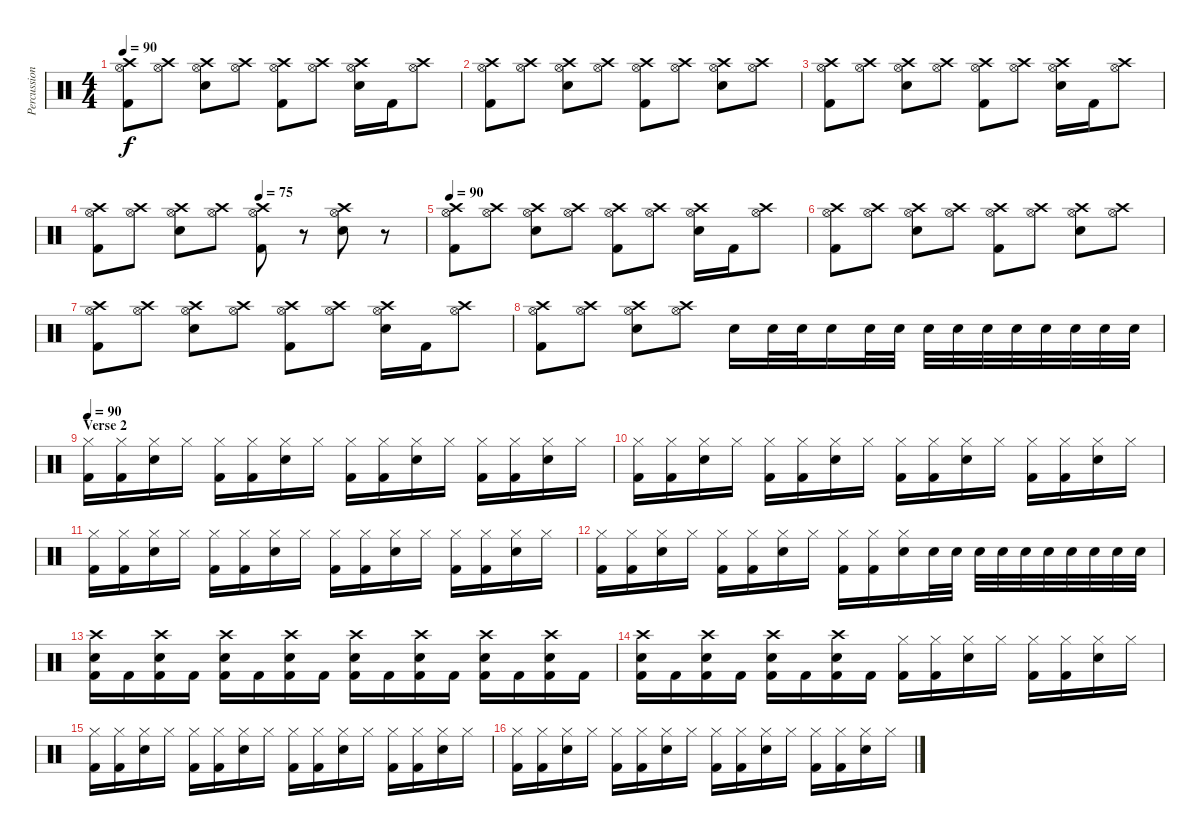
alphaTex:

\track ("Percussion" "Percussion") {instrument percussion}
\staff {score}
\articulation defaults
\ts (4 4)
\tempo 90
\clef neutral
\ks c
("Hi-Hat (open)" "Crash high (hit)" "Kick (hit) 2").8{dy f} ("Hi-Hat (open)" "Crash high (hit)").8 ("Hi-Hat (open)" "Crash high (hit)" "Snare (hit) 2").8 ("Hi-Hat (open)" "Crash high (hit)").8 ("Hi-Hat (open)" "Crash high (hit)" "Kick (hit) 2").8 ("Hi-Hat (open)" "Crash high (hit)").8 ("Hi-Hat (open)" "Crash high (hit)" "Snare (hit) 2").16 "Kick (hit) 2".16 ("Hi-Hat (open)" "Crash high (hit)").8 |
("Hi-Hat (open)" "Crash high (hit)" "Kick (hit) 2").8 ("Hi-Hat (open)" "Crash high (hit)").8 ("Hi-Hat (open)" "Crash high (hit)" "Snare (hit) 2").8 ("Hi-Hat (open)" "Crash high (hit)").8 ("Hi-Hat (open)" "Crash high (hit)" "Kick (hit) 2").8 ("Hi-Hat (open)" "Crash high (hit)").8 ("Hi-Hat (open)" "Crash high (hit)" "Snare (hit) 2").8 ("Hi-Hat (open)" "Crash high (hit)").8 |
("Hi-Hat (open)" "Crash high (hit)" "Kick (hit) 2").8 ("Hi-Hat (open)" "Crash high (hit)").8 ("Hi-Hat (open)" "Crash high (hit)" "Snare (hit) 2").8 ("Hi-Hat (open)" "Crash high (hit)").8 ("Hi-Hat (open)" "Crash high (hit)" "Kick (hit) 2").8 ("Hi-Hat (open)" "Crash high (hit)").8 ("Hi-Hat (open)" "Crash high (hit)" "Snare (hit) 2").16 "Kick (hit) 2".16 ("Hi-Hat (open)" "Crash high (hit)").8 |
\tempo (75 0.5)
("Hi-Hat (open)" "Crash high (hit)" "Kick (hit) 2").8 ("Hi-Hat (open)" "Crash high (hit)").8 ("Hi-Hat (open)" "Crash high (hit)" "Snare (hit) 2").8 ("Hi-Hat (open)" "Crash high (hit)").8 ("Hi-Hat (open)" "Crash high (hit)" "Kick (hit) 2").8 r.8 ("Hi-Hat (open)" "Crash high (hit)" "Snare (hit) 2").8 r.8 |
\tempo 90
("Hi-Hat (open)" "Crash high (hit)" "Kick (hit) 2").8 ("Hi-Hat (open)" "Crash high (hit)").8 ("Hi-Hat (open)" "Crash high (hit)" "Snare (hit) 2").8 ("Hi-Hat (open)" "Crash high (hit)").8 ("Hi-Hat (open)" "Crash high (hit)" "Kick (hit) 2").8 ("Hi-Hat (open)" "Crash high (hit)").8 ("Hi-Hat (open)" "Crash high (hit)" "Snare (hit) 2").16 "Kick (hit) 2".16 ("Hi-Hat (open)" "Crash high (hit)").8 |
("Hi-Hat (open)" "Crash high (hit)" "Kick (hit) 2").8 ("Hi-Hat (open)" "Crash high (hit)").8 ("Hi-Hat (open)" "Crash high (hit)" "Snare (hit) 2").8 ("Hi-Hat (open)" "Crash high (hit)").8 ("Hi-Hat (open)" "Crash high (hit)" "Kick (hit) 2").8 ("Hi-Hat (open)" "Crash high (hit)").8 ("Hi-Hat (open)" "Crash high (hit)" "Snare (hit) 2").8 ("Hi-Hat (open)" "Crash high (hit)").8 |
("Hi-Hat (open)" "Crash high (hit)" "Kick (hit) 2").8 ("Hi-Hat (open)" "Crash high (hit)").8 ("Hi-Hat (open)" "Crash high (hit)" "Snare (hit) 2").8 ("Hi-Hat (open)" "Crash high (hit)").8 ("Hi-Hat (open)" "Crash high (hit)" "Kick (hit) 2").8 ("Hi-Hat (open)" "Crash high (hit)").8 ("Hi-Hat (open)" "Crash high (hit)" "Snare (hit) 2").16 "Kick (hit) 2".16 ("Hi-Hat (open)" "Crash high (hit)").8 |
("Hi-Hat (open)" "Crash high (hit)" "Kick (hit) 2").8 ("Hi-Hat (open)" "Crash high (hit)").8 ("Hi-Hat (open)" "Crash high (hit)" "Snare (hit) 2").8 ("Hi-Hat (open)" "Crash high (hit)").8 "Snare (hit) 2".16 "Snare (hit) 2".32 "Snare (hit) 2".32 "Snare (hit) 2".16 "Snare (hit) 2".32 "Snare (hit) 2".32 "Snare (hit) 2".32 "Snare (hit) 2".32 "Snare (hit) 2".32 "Snare (hit) 2".32 "Snare (hit) 2".32 "Snare (hit) 2".32 "Snare (hit) 2".32 "Snare (hit) 2".32 |
\section ("" "Verse 2")
\tempo 90
("Hi-Hat (closed)" "Kick (hit) 2").16 ("Hi-Hat (closed)" "Kick (hit) 2").16 ("Hi-Hat (closed)" "Snare (hit) 2").16 "Hi-Hat (closed)".16 ("Hi-Hat (closed)" "Kick (hit) 2").16 ("Hi-Hat (closed)" "Kick (hit) 2").16 ("Hi-Hat (closed)" "Snare (hit) 2").16 "Hi-Hat (closed)".16 ("Hi-Hat (closed)" "Kick (hit) 2").16 ("Hi-Hat (closed)" "Kick (hit) 2").16 ("Hi-Hat (closed)" "Snare (hit) 2").16 "Hi-Hat (closed)".16 ("Hi-Hat (closed)" "Kick (hit) 2").16 ("Hi-Hat (closed)" "Kick (hit) 2").16 ("Hi-Hat (closed)" "Snare (hit) 2").16 "Hi-Hat (closed)".16 |
("Hi-Hat (closed)" "Kick (hit) 2").16 ("Hi-Hat (closed)" "Kick (hit) 2").16 ("Hi-Hat (closed)" "Snare (hit) 2").16 "Hi-Hat (closed)".16 ("Hi-Hat (closed)" "Kick (hit) 2").16 ("Hi-Hat (closed)" "Kick (hit) 2").16 ("Hi-Hat (closed)" "Snare (hit) 2").16 "Hi-Hat (closed)".16 ("Hi-Hat (closed)" "Kick (hit) 2").16 ("Hi-Hat (closed)" "Kick (hit) 2").16 ("Hi-Hat (closed)" "Snare (hit) 2").16 "Hi-Hat (closed)".16 ("Hi-Hat (closed)" "Kick (hit) 2").16 ("Hi-Hat (closed)" "Kick (hit) 2").16 ("Hi-Hat (closed)" "Snare (hit) 2").16 "Hi-Hat (closed)".16 |
("Hi-Hat (closed)" "Kick (hit) 2").16 ("Hi-Hat (closed)" "Kick (hit) 2").16 ("Hi-Hat (closed)" "Snare (hit) 2").16 "Hi-Hat (closed)".16 ("Hi-Hat (closed)" "Kick (hit) 2").16 ("Hi-Hat (closed)" "Kick (hit) 2").16 ("Hi-Hat (closed)" "Snare (hit) 2").16 "Hi-Hat (closed)".16 ("Hi-Hat (closed)" "Kick (hit) 2").16 ("Hi-Hat (closed)" "Kick (hit) 2").16 ("Hi-Hat (closed)" "Snare (hit) 2").16 "Hi-Hat (closed)".16 ("Hi-Hat (closed)" "Kick (hit) 2").16 ("Hi-Hat (closed)" "Kick (hit) 2").16 ("Hi-Hat (closed)" "Snare (hit) 2").16 "Hi-Hat (closed)".16 |
("Hi-Hat (closed)" "Kick (hit) 2").16 ("Hi-Hat (closed)" "Kick (hit) 2").16 ("Hi-Hat (closed)" "Snare (hit) 2").16 "Hi-Hat (closed)".16 ("Hi-Hat (closed)" "Kick (hit) 2").16 ("Hi-Hat (closed)" "Kick (hit) 2").16 ("Hi-Hat (closed)" "Snare (hit) 2").16 "Hi-Hat (closed)".16 ("Hi-Hat (closed)" "Kick (hit) 2").16 ("Hi-Hat (closed)" "Kick (hit) 2").16 ("Hi-Hat (closed)" "Snare (hit) 2").16 "Snare (hit) 2".32 "Snare (hit) 2".32 "Snare (hit) 2".32 "Snare (hit) 2".32 "Snare (hit) 2".32 "Snare (hit) 2".32 "Snare (hit) 2".32 "Snare (hit) 2".32 "Snare (hit) 2".32 "Snare (hit) 2".32 |
("Crash high (hit)" "Snare (hit) 2" "Kick (hit) 2").16 "Kick (hit) 2".16 ("Crash high (hit)" "Snare (hit) 2" "Kick (hit) 2").16 "Kick (hit) 2".16 ("Crash high (hit)" "Snare (hit) 2" "Kick (hit) 2").16 "Kick (hit) 2".16 ("Crash high (hit)" "Snare (hit) 2" "Kick (hit) 2").16 "Kick (hit) 2".16 ("Crash high (hit)" "Snare (hit) 2" "Kick (hit) 2").16 "Kick (hit) 2".16 ("Crash high (hit)" "Snare (hit) 2" "Kick (hit) 2").16 "Kick (hit) 2".16 ("Crash high (hit)" "Snare (hit) 2" "Kick (hit) 2").16 "Kick (hit) 2".16 ("Crash high (hit)" "Snare (hit) 2" "Kick (hit) 2").16 "Kick (hit) 2".16 |
("Crash high (hit)" "Snare (hit) 2" "Kick (hit) 2").16 "Kick (hit) 2".16 ("Crash high (hit)" "Snare (hit) 2" "Kick (hit) 2").16 "Kick (hit) 2".16 ("Crash high (hit)" "Snare (hit) 2" "Kick (hit) 2").16 "Kick (hit) 2".16 ("Crash high (hit)" "Snare (hit) 2" "Kick (hit) 2").16 "Kick (hit) 2".16 ("Hi-Hat (closed)" "Kick (hit) 2").16 ("Hi-Hat (closed)" "Kick (hit) 2").16 ("Hi-Hat (closed)" "Snare (hit) 2").16 "Hi-Hat (closed)".16 ("Hi-Hat (closed)" "Kick (hit) 2").16 ("Hi-Hat (closed)" "Kick (hit) 2").16 ("Hi-Hat (closed)" "Snare (hit) 2").16 "Hi-Hat (closed)".16 |
("Hi-Hat (closed)" "Kick (hit) 2").16 ("Hi-Hat (closed)" "Kick (hit) 2").16 ("Hi-Hat (closed)" "Snare (hit) 2").16 "Hi-Hat (closed)".16 ("Hi-Hat (closed)" "Kick (hit) 2").16 ("Hi-Hat (closed)" "Kick (hit) 2").16 ("Hi-Hat (closed)" "Snare (hit) 2").16 "Hi-Hat (closed)".16 ("Hi-Hat (closed)" "Kick (hit) 2").16 ("Hi-Hat (closed)" "Kick (hit) 2").16 ("Hi-Hat (closed)" "Snare (hit) 2").16 "Hi-Hat (closed)".16 ("Hi-Hat (closed)" "Kick (hit) 2").16 ("Hi-Hat (closed)" "Kick (hit) 2").16 ("Hi-Hat (closed)" "Snare (hit) 2").16 "Hi-Hat (closed)".16 |
("Hi-Hat (closed)" "Kick (hit) 2").16 ("Hi-Hat (closed)" "Kick (hit) 2").16 ("Hi-Hat (closed)" "Snare (hit) 2").16 "Hi-Hat (closed)".16 ("Hi-Hat (closed)" "Kick (hit) 2").16 ("Hi-Hat (closed)" "Kick (hit) 2").16 ("Hi-Hat (closed)" "Snare (hit) 2").16 "Hi-Hat (closed)".16 ("Hi-Hat (closed)" "Kick (hit) 2").16 ("Hi-Hat (closed)" "Kick (hit) 2").16 ("Hi-Hat (closed)" "Snare (hit) 2").16 "Hi-Hat (closed)".16 ("Hi-Hat (closed)" "Kick (hit) 2").16 ("Hi-Hat (closed)" "Kick (hit) 2").16 ("Hi-Hat (closed)" "Snare (hit) 2").16 "Hi-Hat (closed)".16
